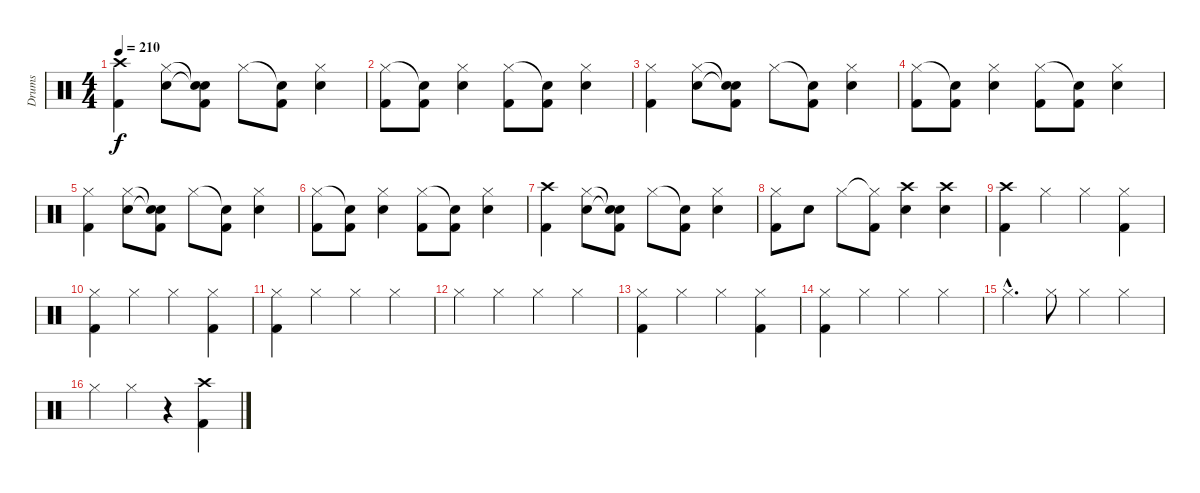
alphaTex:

\track ("Drums" "Drums") {instrument percussion}
\staff {score}
\articulation defaults
\ts (4 4)
\tempo 210
\clef neutral
\ks c
("Crash high (hit)" "Kick (hit) 2").4{dy f} ("Hi-Hat (closed)" "Snare (hit) 2").8 ("Snare (hit)"{t} "Snare (hit)"{t} "Kick (hit) 2").8 "Hi-Hat (closed)".8 ("Snare (hit)"{t} "Kick (hit) 2").8 ("Hi-Hat (closed)" "Snare (hit) 2").4 |
("Hi-Hat (closed)" "Kick (hit) 2").8 ("Snare (hit)"{t} "Kick (hit) 2").8 ("Hi-Hat (closed)" "Snare (hit) 2").4 ("Hi-Hat (closed)" "Kick (hit) 2").8 ("Snare (hit)"{t} "Kick (hit) 2").8 ("Hi-Hat (closed)" "Snare (hit) 2").4 |
("Hi-Hat (closed)" "Kick (hit) 2").4 ("Hi-Hat (closed)" "Snare (hit) 2").8 ("Snare (hit)"{t} "Snare (hit)"{t} "Kick (hit) 2").8 "Hi-Hat (closed)".8 ("Snare (hit)"{t} "Kick (hit) 2").8 ("Hi-Hat (closed)" "Snare (hit) 2").4 |
("Hi-Hat (closed)" "Kick (hit) 2").8 ("Snare (hit)"{t} "Kick (hit) 2").8 ("Hi-Hat (closed)" "Snare (hit) 2").4 ("Hi-Hat (closed)" "Kick (hit) 2").8 ("Snare (hit)"{t} "Kick (hit) 2").8 ("Hi-Hat (closed)" "Snare (hit) 2").4 |
("Hi-Hat (closed)" "Kick (hit) 2").4 ("Hi-Hat (closed)" "Snare (hit) 2").8 ("Snare (hit)"{t} "Snare (hit)"{t} "Kick (hit) 2").8 "Hi-Hat (closed)".8 ("Snare (hit)"{t} "Kick (hit) 2").8 ("Hi-Hat (closed)" "Snare (hit) 2").4 |
("Hi-Hat (closed)" "Kick (hit) 2").8 ("Snare (hit)"{t} "Kick (hit) 2").8 ("Hi-Hat (closed)" "Snare (hit) 2").4 ("Hi-Hat (closed)" "Kick (hit) 2").8 ("Snare (hit)"{t} "Kick (hit) 2").8 ("Hi-Hat (closed)" "Snare (hit) 2").4 |
("Crash high (hit)" "Kick (hit) 2").4 ("Hi-Hat (closed)" "Snare (hit) 2").8 ("Snare (hit)"{t} "Snare (hit)"{t} "Kick (hit) 2").8 "Hi-Hat (closed)".8 ("Snare (hit)"{t} "Kick (hit) 2").8 ("Hi-Hat (closed)" "Snare (hit) 2").4 |
("Hi-Hat (closed)" "Kick (hit) 2").8 "Snare (hit) 2".8 "Hi-Hat (closed)".8 ("Hi-Hat (closed)"{t} "Kick (hit) 2").8 ("Crash high (hit)" "Snare (hit) 2").4 ("Crash high (hit)" "Snare (hit) 2").4 |
("Crash high (hit)" "Kick (hit) 2").4 "Hi-Hat (closed)".4 "Hi-Hat (closed)".4 ("Hi-Hat (closed)" "Kick (hit) 2").4 |
("Hi-Hat (closed)" "Kick (hit) 2").4 "Hi-Hat (closed)".4 "Hi-Hat (closed)".4 ("Hi-Hat (closed)" "Kick (hit) 2").4 |
("Hi-Hat (closed)" "Kick (hit) 2").4 "Hi-Hat (closed)".4 "Hi-Hat (closed)".4 "Hi-Hat (closed)".4 |
"Hi-Hat (closed)".4 "Hi-Hat (closed)".4 "Hi-Hat (closed)".4 "Hi-Hat (closed)".4 |
("Hi-Hat (closed)" "Kick (hit) 2").4 "Hi-Hat (closed)".4 "Hi-Hat (closed)".4 ("Hi-Hat (closed)" "Kick (hit) 2").4 |
("Hi-Hat (closed)" "Kick (hit) 2").4 "Hi-Hat (closed)".4 "Hi-Hat (closed)".4 "Hi-Hat (closed)".4 |
"Hi-Hat (closed)"{hac}.4{d} "Hi-Hat (closed)".8 "Hi-Hat (closed)".4 "Hi-Hat (closed)".4 |
"Hi-Hat (closed)".4 "Hi-Hat (closed)".4 r.4 ("Crash high (hit)" "Kick (hit) 2").4
